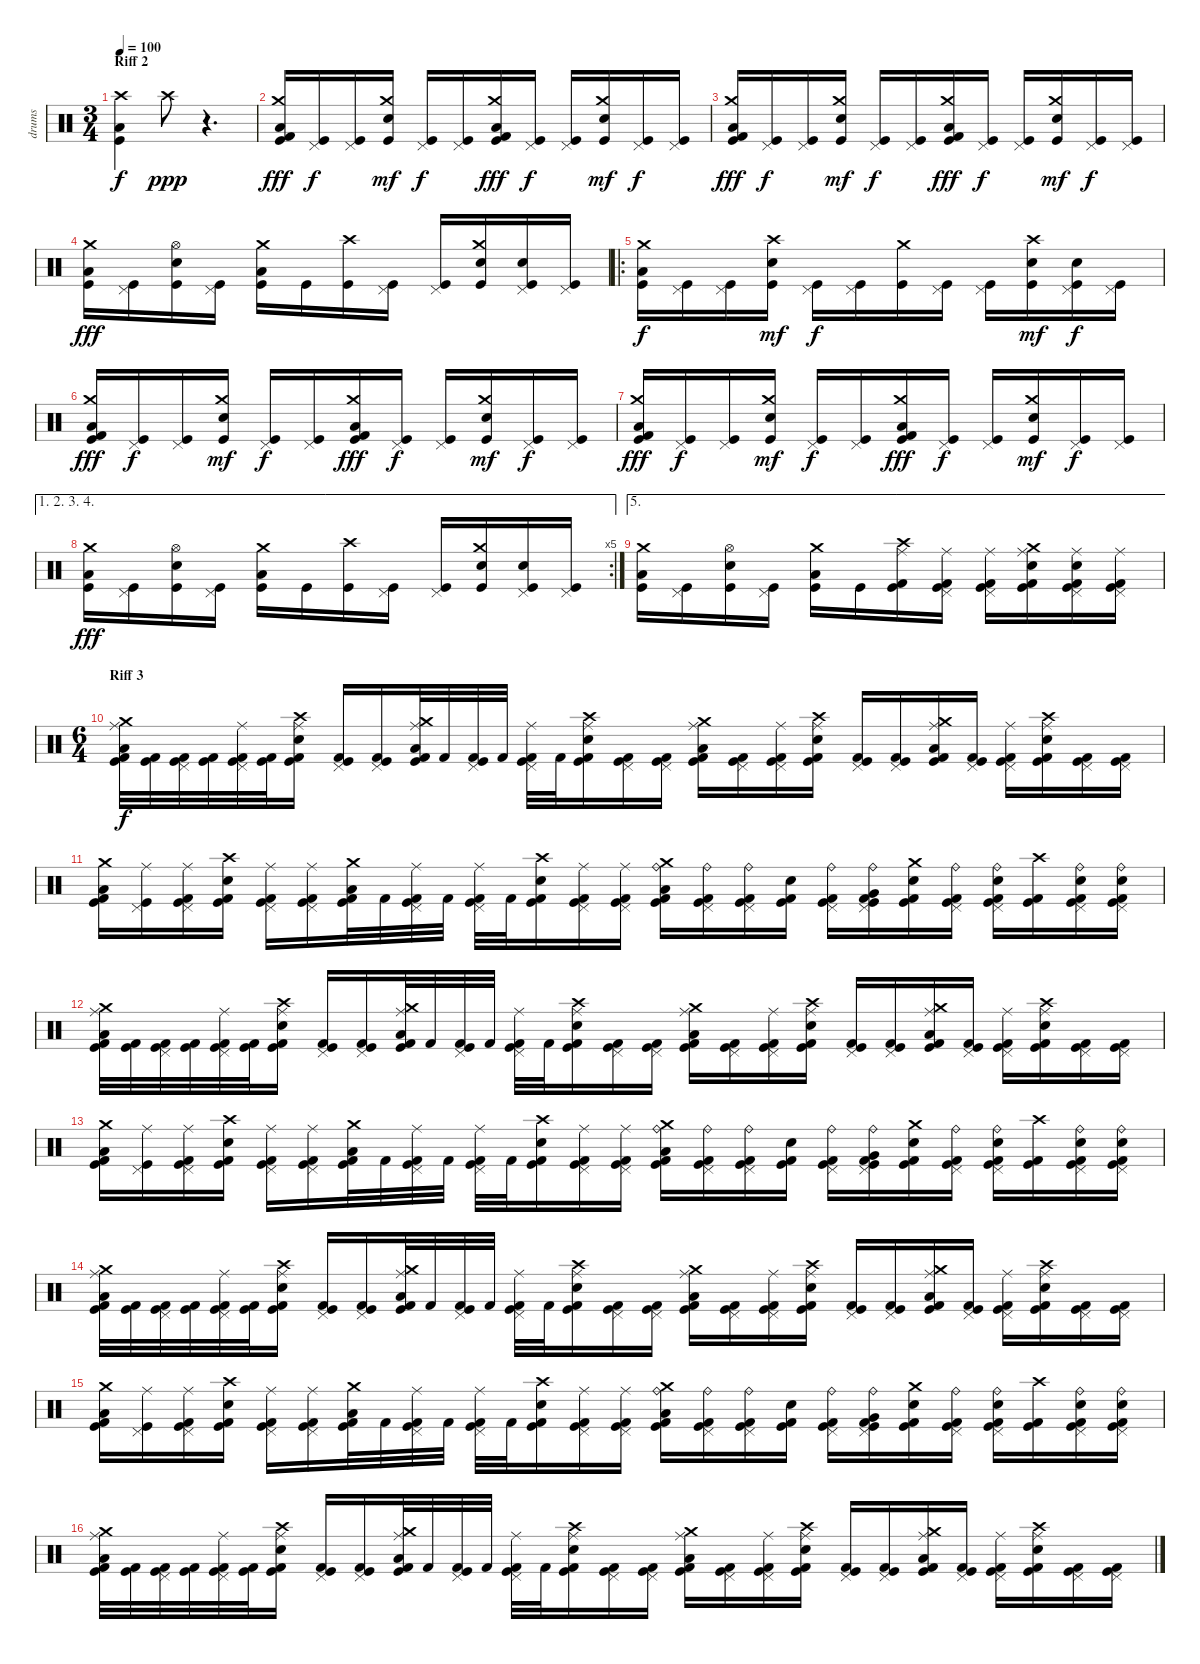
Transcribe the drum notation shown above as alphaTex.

\track ("drums" "drums") {instrument percussion}
\staff {score}
\articulation defaults
\ts (3 4)
\section ("" "Riff 2")
\tempo 100
\clef neutral
\ks c
("Crash high (hit)" "Low Floor Tom (hit)" "Kick (hit)").4{dy f} "Crash high (hit)".8{dy ppp} r.4{d} |
("Crash medium (hit)" "Kick (hit) 2" "Low Floor Tom (hit)" "Kick (hit)").16{dy fff} ("Pedal Hi-Hat (hit)" "Kick (hit)").16{dy f} ("Pedal Hi-Hat (hit)" "Kick (hit)").16 ("Crash medium (hit)" "Snare (hit) 2" "Kick (hit)").16{dy mf} ("Pedal Hi-Hat (hit)" "Kick (hit)").16{dy f} ("Pedal Hi-Hat (hit)" "Kick (hit)").16 ("Crash medium (hit)" "Kick (hit) 2" "Low Floor Tom (hit)" "Kick (hit)").16{dy fff} ("Pedal Hi-Hat (hit)" "Kick (hit)").16{dy f} ("Pedal Hi-Hat (hit)" "Kick (hit)").16 ("Crash medium (hit)" "Snare (hit) 2" "Kick (hit)").16{dy mf} ("Pedal Hi-Hat (hit)" "Kick (hit)").16{dy f} ("Pedal Hi-Hat (hit)" "Kick (hit)").16 |
("Crash medium (hit)" "Low Floor Tom (hit)" "Kick (hit) 2" "Kick (hit)").16{dy fff} ("Pedal Hi-Hat (hit)" "Kick (hit)").16{dy f} ("Pedal Hi-Hat (hit)" "Kick (hit)").16 ("Crash medium (hit)" "Snare (hit) 2" "Kick (hit)").16{dy mf} ("Pedal Hi-Hat (hit)" "Kick (hit)").16{dy f} ("Pedal Hi-Hat (hit)" "Kick (hit)").16 ("Crash medium (hit)" "Low Floor Tom (hit)" "Kick (hit) 2" "Kick (hit)").16{dy fff} ("Pedal Hi-Hat (hit)" "Kick (hit)").16{dy f} ("Pedal Hi-Hat (hit)" "Kick (hit)").16 ("Crash medium (hit)" "Snare (hit) 2" "Kick (hit)").16{dy mf} ("Pedal Hi-Hat (hit)" "Kick (hit)").16{dy f} ("Pedal Hi-Hat (hit)" "Kick (hit)").16 |
("Crash medium (hit)" "Low Floor Tom (hit)" "Kick (hit)").16{dy fff} ("Pedal Hi-Hat (hit)" "Kick (hit)").16 ("Hi-Hat (open)" "Snare (hit) 2" "Kick (hit)").16 ("Pedal Hi-Hat (hit)" "Kick (hit)").16 ("Crash medium (hit)" "Low Floor Tom (hit)" "Kick (hit)").16 "Kick (hit)".16 ("Crash high (hit)" "Kick (hit)").16 ("Pedal Hi-Hat (hit)" "Kick (hit)").16 ("Pedal Hi-Hat (hit)" "Kick (hit)").16 ("Crash medium (hit)" "Snare (hit) 2" "Kick (hit)").16 ("Pedal Hi-Hat (hit)" "Snare (hit) 2" "Kick (hit)").16 ("Pedal Hi-Hat (hit)" "Kick (hit)").16 |
\ro
("Crash medium (hit)" "Low Floor Tom (hit)" "Kick (hit)").16{dy f} ("Pedal Hi-Hat (hit)" "Kick (hit)").16 ("Pedal Hi-Hat (hit)" "Kick (hit)").16 ("Crash high (hit)" "Snare (hit) 2" "Kick (hit)").16{dy mf} ("Pedal Hi-Hat (hit)" "Kick (hit)").16{dy f} ("Pedal Hi-Hat (hit)" "Kick (hit)").16 ("Crash medium (hit)" "Kick (hit)").16 ("Pedal Hi-Hat (hit)" "Kick (hit)").16 ("Pedal Hi-Hat (hit)" "Kick (hit)").16 ("Crash high (hit)" "Snare (hit) 2" "Kick (hit)").16{dy mf} ("Pedal Hi-Hat (hit)" "Snare (hit) 2" "Kick (hit)").16{dy f} ("Pedal Hi-Hat (hit)" "Kick (hit)").16 |
("Crash medium (hit)" "Kick (hit) 2" "Low Floor Tom (hit)" "Kick (hit)").16{dy fff} ("Pedal Hi-Hat (hit)" "Kick (hit)").16{dy f} ("Pedal Hi-Hat (hit)" "Kick (hit)").16 ("Crash medium (hit)" "Snare (hit) 2" "Kick (hit)").16{dy mf} ("Pedal Hi-Hat (hit)" "Kick (hit)").16{dy f} ("Pedal Hi-Hat (hit)" "Kick (hit)").16 ("Crash medium (hit)" "Kick (hit) 2" "Low Floor Tom (hit)" "Kick (hit)").16{dy fff} ("Pedal Hi-Hat (hit)" "Kick (hit)").16{dy f} ("Pedal Hi-Hat (hit)" "Kick (hit)").16 ("Crash medium (hit)" "Snare (hit) 2" "Kick (hit)").16{dy mf} ("Pedal Hi-Hat (hit)" "Kick (hit)").16{dy f} ("Pedal Hi-Hat (hit)" "Kick (hit)").16 |
("Crash medium (hit)" "Low Floor Tom (hit)" "Kick (hit) 2" "Kick (hit)").16{dy fff} ("Pedal Hi-Hat (hit)" "Kick (hit)").16{dy f} ("Pedal Hi-Hat (hit)" "Kick (hit)").16 ("Crash medium (hit)" "Snare (hit) 2" "Kick (hit)").16{dy mf} ("Pedal Hi-Hat (hit)" "Kick (hit)").16{dy f} ("Pedal Hi-Hat (hit)" "Kick (hit)").16 ("Crash medium (hit)" "Low Floor Tom (hit)" "Kick (hit) 2" "Kick (hit)").16{dy fff} ("Pedal Hi-Hat (hit)" "Kick (hit)").16{dy f} ("Pedal Hi-Hat (hit)" "Kick (hit)").16 ("Crash medium (hit)" "Snare (hit) 2" "Kick (hit)").16{dy mf} ("Pedal Hi-Hat (hit)" "Kick (hit)").16{dy f} ("Pedal Hi-Hat (hit)" "Kick (hit)").16 |
\ae (1 2 3 4)
\rc 5
("Crash medium (hit)" "Low Floor Tom (hit)" "Kick (hit)").16{dy fff} ("Pedal Hi-Hat (hit)" "Kick (hit)").16 ("Hi-Hat (open)" "Snare (hit) 2" "Kick (hit)").16 ("Pedal Hi-Hat (hit)" "Kick (hit)").16 ("Crash medium (hit)" "Low Floor Tom (hit)" "Kick (hit)").16 "Kick (hit)".16 ("Crash high (hit)" "Kick (hit)").16 ("Pedal Hi-Hat (hit)" "Kick (hit)").16 ("Pedal Hi-Hat (hit)" "Kick (hit)").16 ("Crash medium (hit)" "Snare (hit) 2" "Kick (hit)").16 ("Pedal Hi-Hat (hit)" "Snare (hit) 2" "Kick (hit)").16 ("Pedal Hi-Hat (hit)" "Kick (hit)").16 |
\ae 5
("Crash medium (hit)" "Low Floor Tom (hit)" "Kick (hit)").16 ("Pedal Hi-Hat (hit)" "Kick (hit)").16 ("Hi-Hat (open)" "Snare (hit) 2" "Kick (hit)").16 ("Pedal Hi-Hat (hit)" "Kick (hit)").16 ("Crash medium (hit)" "Low Floor Tom (hit)" "Kick (hit)").16 "Kick (hit)".16 ("Ride (middle)" "Crash high (hit)" "Kick (hit) 2" "Kick (hit)").16 ("Ride (middle)" "Pedal Hi-Hat (hit)" "Kick (hit) 2" "Kick (hit)").16 ("Ride (middle)" "Pedal Hi-Hat (hit)" "Kick (hit) 2" "Kick (hit)").16 ("Ride (middle)" "Crash medium (hit)" "Snare (hit) 2" "Kick (hit) 2" "Kick (hit)").16 ("Ride (middle)" "Pedal Hi-Hat (hit)" "Snare (hit) 2" "Kick (hit) 2" "Kick (hit)").16 ("Ride (middle)" "Pedal Hi-Hat (hit)" "Kick (hit) 2" "Kick (hit)").16 |
\ts (6 4)
\section ("" "Riff 3")
("Ride (middle)" "Crash medium (hit)" "Low Floor Tom (hit)" "Kick (hit) 2" "Kick (hit)").32{dy f} ("Kick (hit) 2" "Kick (hit)").32 ("Pedal Hi-Hat (hit)" "Kick (hit) 2" "Kick (hit)").32 ("Kick (hit) 2" "Kick (hit)").32 ("Ride (middle)" "Pedal Hi-Hat (hit)" "Kick (hit) 2" "Kick (hit)").32 ("Kick (hit) 2" "Kick (hit)").32 ("Ride (middle)" "Crash high (hit)" "Snare (hit) 2" "Kick (hit) 2" "Kick (hit)").16 ("Pedal Hi-Hat (hit)" "Kick (hit) 2" "Kick (hit)").16 ("Pedal Hi-Hat (hit)" "Kick (hit) 2" "Kick (hit)").16 ("Ride (middle)" "Crash medium (hit)" "Low Floor Tom (hit)" "Kick (hit) 2" "Kick (hit)").32 "Kick (hit) 2".32 ("Pedal Hi-Hat (hit)" "Kick (hit) 2" "Kick (hit)").32 "Kick (hit) 2".32 ("Ride (middle)" "Pedal Hi-Hat (hit)" "Kick (hit) 2" "Kick (hit)").32 "Kick (hit) 2".32 ("Ride (middle)" "Crash high (hit)" "Snare (hit) 2" "Kick (hit) 2" "Kick (hit)").16 ("Pedal Hi-Hat (hit)" "Kick (hit) 2" "Kick (hit)").16 ("Pedal Hi-Hat (hit)" "Kick (hit) 2" "Kick (hit)").16 ("Ride (middle)" "Crash medium (hit)" "Low Floor Tom (hit)" "Kick (hit) 2" "Kick (hit)").16 ("Pedal Hi-Hat (hit)" "Kick (hit) 2" "Kick (hit)").16 ("Ride (middle)" "Pedal Hi-Hat (hit)" "Kick (hit) 2" "Kick (hit)").16 ("Ride (middle)" "Crash high (hit)" "Snare (hit) 2" "Kick (hit) 2" "Kick (hit)").16 ("Pedal Hi-Hat (hit)" "Kick (hit) 2" "Kick (hit)").16 ("Pedal Hi-Hat (hit)" "Kick (hit) 2" "Kick (hit)").16 ("Ride (middle)" "Crash medium (hit)" "Low Floor Tom (hit)" "Kick (hit) 2" "Kick (hit)").16 ("Pedal Hi-Hat (hit)" "Kick (hit) 2" "Kick (hit)").16 ("Ride (middle)" "Pedal Hi-Hat (hit)" "Kick (hit) 2" "Kick (hit)").16 ("Ride (middle)" "Crash high (hit)" "Snare (hit) 2" "Kick (hit) 2" "Kick (hit)").16 ("Pedal Hi-Hat (hit)" "Kick (hit) 2" "Kick (hit)").16 ("Pedal Hi-Hat (hit)" "Kick (hit) 2" "Kick (hit)").16 |
("Crash medium (hit)" "Low Floor Tom (hit)" "Kick (hit) 2" "Kick (hit)").16 ("Ride (middle)" "Pedal Hi-Hat (hit)" "Kick (hit)").16 ("Ride (middle)" "Pedal Hi-Hat (hit)" "Kick (hit) 2" "Kick (hit)").16 ("Crash high (hit)" "Snare (hit) 2" "Kick (hit) 2" "Kick (hit)").16 ("Ride (middle)" "Pedal Hi-Hat (hit)" "Kick (hit) 2" "Kick (hit)").16 ("Ride (middle)" "Pedal Hi-Hat (hit)" "Kick (hit) 2" "Kick (hit)").16 ("Crash medium (hit)" "Low Floor Tom (hit)" "Kick (hit) 2" "Kick (hit)").32 "Kick (hit) 2".32 ("Ride (middle)" "Pedal Hi-Hat (hit)" "Kick (hit) 2" "Kick (hit)").32 "Kick (hit) 2".32 ("Ride (middle)" "Pedal Hi-Hat (hit)" "Kick (hit) 2" "Kick (hit)").32 "Kick (hit) 2".32 ("Crash high (hit)" "Snare (hit) 2" "Kick (hit) 2" "Kick (hit)").16 ("Ride (middle)" "Pedal Hi-Hat (hit)" "Kick (hit) 2" "Kick (hit)").16 ("Ride (middle)" "Pedal Hi-Hat (hit)" "Kick (hit) 2" "Kick (hit)").16 ("Ride (bell)" "Crash medium (hit)" "Low Floor Tom (hit)" "Kick (hit) 2" "Kick (hit)").16 ("Ride (bell)" "Pedal Hi-Hat (hit)" "Kick (hit) 2" "Kick (hit)").16 ("Ride (bell)" "Pedal Hi-Hat (hit)" "Kick (hit) 2" "Kick (hit)").16 ("Snare (hit) 2" "Kick (hit) 2" "Kick (hit)").16 ("Ride (bell)" "Pedal Hi-Hat (hit)" "Kick (hit) 2" "Kick (hit)").16 ("Ride (bell)" "Pedal Hi-Hat (hit)" "Very Low Tom (hit)" "Kick (hit) 2" "Kick (hit)").16 ("Crash medium (hit)" "Snare (hit) 2" "Kick (hit) 2" "Kick (hit)").16 ("Ride (bell)" "Pedal Hi-Hat (hit)" "Kick (hit) 2" "Kick (hit)").16 ("Ride (bell)" "Pedal Hi-Hat (hit)" "Snare (hit) 2" "Kick (hit) 2" "Kick (hit)").16 ("Crash high (hit)" "Kick (hit) 2" "Kick (hit)").16 ("Ride (bell)" "Pedal Hi-Hat (hit)" "Snare (hit) 2" "Kick (hit) 2" "Kick (hit)").16 ("Ride (bell)" "Pedal Hi-Hat (hit)" "Snare (hit) 2" "Kick (hit) 2" "Kick (hit)").16 |
("Ride (middle)" "Crash medium (hit)" "Low Floor Tom (hit)" "Kick (hit) 2" "Kick (hit)").32 ("Kick (hit) 2" "Kick (hit)").32 ("Pedal Hi-Hat (hit)" "Kick (hit) 2" "Kick (hit)").32 ("Kick (hit) 2" "Kick (hit)").32 ("Ride (middle)" "Pedal Hi-Hat (hit)" "Kick (hit) 2" "Kick (hit)").32 ("Kick (hit) 2" "Kick (hit)").32 ("Ride (middle)" "Crash high (hit)" "Snare (hit) 2" "Kick (hit) 2" "Kick (hit)").16 ("Pedal Hi-Hat (hit)" "Kick (hit) 2" "Kick (hit)").16 ("Pedal Hi-Hat (hit)" "Kick (hit) 2" "Kick (hit)").16 ("Ride (middle)" "Crash medium (hit)" "Low Floor Tom (hit)" "Kick (hit) 2" "Kick (hit)").32 "Kick (hit) 2".32 ("Pedal Hi-Hat (hit)" "Kick (hit) 2" "Kick (hit)").32 "Kick (hit) 2".32 ("Ride (middle)" "Pedal Hi-Hat (hit)" "Kick (hit) 2" "Kick (hit)").32 "Kick (hit) 2".32 ("Ride (middle)" "Crash high (hit)" "Snare (hit) 2" "Kick (hit) 2" "Kick (hit)").16 ("Pedal Hi-Hat (hit)" "Kick (hit) 2" "Kick (hit)").16 ("Pedal Hi-Hat (hit)" "Kick (hit) 2" "Kick (hit)").16 ("Ride (middle)" "Crash medium (hit)" "Low Floor Tom (hit)" "Kick (hit) 2" "Kick (hit)").16 ("Pedal Hi-Hat (hit)" "Kick (hit) 2" "Kick (hit)").16 ("Ride (middle)" "Pedal Hi-Hat (hit)" "Kick (hit) 2" "Kick (hit)").16 ("Ride (middle)" "Crash high (hit)" "Snare (hit) 2" "Kick (hit) 2" "Kick (hit)").16 ("Pedal Hi-Hat (hit)" "Kick (hit) 2" "Kick (hit)").16 ("Pedal Hi-Hat (hit)" "Kick (hit) 2" "Kick (hit)").16 ("Ride (middle)" "Crash medium (hit)" "Low Floor Tom (hit)" "Kick (hit) 2" "Kick (hit)").16 ("Pedal Hi-Hat (hit)" "Kick (hit) 2" "Kick (hit)").16 ("Ride (middle)" "Pedal Hi-Hat (hit)" "Kick (hit) 2" "Kick (hit)").16 ("Ride (middle)" "Crash high (hit)" "Snare (hit) 2" "Kick (hit) 2" "Kick (hit)").16 ("Pedal Hi-Hat (hit)" "Kick (hit) 2" "Kick (hit)").16 ("Pedal Hi-Hat (hit)" "Kick (hit) 2" "Kick (hit)").16 |
("Crash medium (hit)" "Low Floor Tom (hit)" "Kick (hit) 2" "Kick (hit)").16 ("Ride (middle)" "Pedal Hi-Hat (hit)" "Kick (hit)").16 ("Ride (middle)" "Pedal Hi-Hat (hit)" "Kick (hit) 2" "Kick (hit)").16 ("Crash high (hit)" "Snare (hit) 2" "Kick (hit) 2" "Kick (hit)").16 ("Ride (middle)" "Pedal Hi-Hat (hit)" "Kick (hit) 2" "Kick (hit)").16 ("Ride (middle)" "Pedal Hi-Hat (hit)" "Kick (hit) 2" "Kick (hit)").16 ("Crash medium (hit)" "Low Floor Tom (hit)" "Kick (hit) 2" "Kick (hit)").32 "Kick (hit) 2".32 ("Ride (middle)" "Pedal Hi-Hat (hit)" "Kick (hit) 2" "Kick (hit)").32 "Kick (hit) 2".32 ("Ride (middle)" "Pedal Hi-Hat (hit)" "Kick (hit) 2" "Kick (hit)").32 "Kick (hit) 2".32 ("Crash high (hit)" "Snare (hit) 2" "Kick (hit) 2" "Kick (hit)").16 ("Ride (middle)" "Pedal Hi-Hat (hit)" "Kick (hit) 2" "Kick (hit)").16 ("Ride (middle)" "Pedal Hi-Hat (hit)" "Kick (hit) 2" "Kick (hit)").16 ("Ride (bell)" "Crash medium (hit)" "Low Floor Tom (hit)" "Kick (hit) 2" "Kick (hit)").16 ("Ride (bell)" "Pedal Hi-Hat (hit)" "Kick (hit) 2" "Kick (hit)").16 ("Ride (bell)" "Pedal Hi-Hat (hit)" "Kick (hit) 2" "Kick (hit)").16 ("Snare (hit) 2" "Kick (hit) 2" "Kick (hit)").16 ("Ride (bell)" "Pedal Hi-Hat (hit)" "Kick (hit) 2" "Kick (hit)").16 ("Ride (bell)" "Pedal Hi-Hat (hit)" "Very Low Tom (hit)" "Kick (hit) 2" "Kick (hit)").16 ("Crash medium (hit)" "Snare (hit) 2" "Kick (hit) 2" "Kick (hit)").16 ("Ride (bell)" "Pedal Hi-Hat (hit)" "Kick (hit) 2" "Kick (hit)").16 ("Ride (bell)" "Pedal Hi-Hat (hit)" "Snare (hit) 2" "Kick (hit) 2" "Kick (hit)").16 ("Crash high (hit)" "Kick (hit) 2" "Kick (hit)").16 ("Ride (bell)" "Pedal Hi-Hat (hit)" "Snare (hit) 2" "Kick (hit) 2" "Kick (hit)").16 ("Ride (bell)" "Pedal Hi-Hat (hit)" "Snare (hit) 2" "Kick (hit) 2" "Kick (hit)").16 |
("Ride (middle)" "Crash medium (hit)" "Low Floor Tom (hit)" "Kick (hit) 2" "Kick (hit)").32 ("Kick (hit) 2" "Kick (hit)").32 ("Pedal Hi-Hat (hit)" "Kick (hit) 2" "Kick (hit)").32 ("Kick (hit) 2" "Kick (hit)").32 ("Ride (middle)" "Pedal Hi-Hat (hit)" "Kick (hit) 2" "Kick (hit)").32 ("Kick (hit) 2" "Kick (hit)").32 ("Ride (middle)" "Crash high (hit)" "Snare (hit) 2" "Kick (hit) 2" "Kick (hit)").16 ("Pedal Hi-Hat (hit)" "Kick (hit) 2" "Kick (hit)").16 ("Pedal Hi-Hat (hit)" "Kick (hit) 2" "Kick (hit)").16 ("Ride (middle)" "Crash medium (hit)" "Low Floor Tom (hit)" "Kick (hit) 2" "Kick (hit)").32 "Kick (hit) 2".32 ("Pedal Hi-Hat (hit)" "Kick (hit) 2" "Kick (hit)").32 "Kick (hit) 2".32 ("Ride (middle)" "Pedal Hi-Hat (hit)" "Kick (hit) 2" "Kick (hit)").32 "Kick (hit) 2".32 ("Ride (middle)" "Crash high (hit)" "Snare (hit) 2" "Kick (hit) 2" "Kick (hit)").16 ("Pedal Hi-Hat (hit)" "Kick (hit) 2" "Kick (hit)").16 ("Pedal Hi-Hat (hit)" "Kick (hit) 2" "Kick (hit)").16 ("Ride (middle)" "Crash medium (hit)" "Low Floor Tom (hit)" "Kick (hit) 2" "Kick (hit)").16 ("Pedal Hi-Hat (hit)" "Kick (hit) 2" "Kick (hit)").16 ("Ride (middle)" "Pedal Hi-Hat (hit)" "Kick (hit) 2" "Kick (hit)").16 ("Ride (middle)" "Crash high (hit)" "Snare (hit) 2" "Kick (hit) 2" "Kick (hit)").16 ("Pedal Hi-Hat (hit)" "Kick (hit) 2" "Kick (hit)").16 ("Pedal Hi-Hat (hit)" "Kick (hit) 2" "Kick (hit)").16 ("Ride (middle)" "Crash medium (hit)" "Low Floor Tom (hit)" "Kick (hit) 2" "Kick (hit)").16 ("Pedal Hi-Hat (hit)" "Kick (hit) 2" "Kick (hit)").16 ("Ride (middle)" "Pedal Hi-Hat (hit)" "Kick (hit) 2" "Kick (hit)").16 ("Ride (middle)" "Crash high (hit)" "Snare (hit) 2" "Kick (hit) 2" "Kick (hit)").16 ("Pedal Hi-Hat (hit)" "Kick (hit) 2" "Kick (hit)").16 ("Pedal Hi-Hat (hit)" "Kick (hit) 2" "Kick (hit)").16 |
("Crash medium (hit)" "Low Floor Tom (hit)" "Kick (hit) 2" "Kick (hit)").16 ("Ride (middle)" "Pedal Hi-Hat (hit)" "Kick (hit)").16 ("Ride (middle)" "Pedal Hi-Hat (hit)" "Kick (hit) 2" "Kick (hit)").16 ("Crash high (hit)" "Snare (hit) 2" "Kick (hit) 2" "Kick (hit)").16 ("Ride (middle)" "Pedal Hi-Hat (hit)" "Kick (hit) 2" "Kick (hit)").16 ("Ride (middle)" "Pedal Hi-Hat (hit)" "Kick (hit) 2" "Kick (hit)").16 ("Crash medium (hit)" "Low Floor Tom (hit)" "Kick (hit) 2" "Kick (hit)").32 "Kick (hit) 2".32 ("Ride (middle)" "Pedal Hi-Hat (hit)" "Kick (hit) 2" "Kick (hit)").32 "Kick (hit) 2".32 ("Ride (middle)" "Pedal Hi-Hat (hit)" "Kick (hit) 2" "Kick (hit)").32 "Kick (hit) 2".32 ("Crash high (hit)" "Snare (hit) 2" "Kick (hit) 2" "Kick (hit)").16 ("Ride (middle)" "Pedal Hi-Hat (hit)" "Kick (hit) 2" "Kick (hit)").16 ("Ride (middle)" "Pedal Hi-Hat (hit)" "Kick (hit) 2" "Kick (hit)").16 ("Ride (bell)" "Crash medium (hit)" "Low Floor Tom (hit)" "Kick (hit) 2" "Kick (hit)").16 ("Ride (bell)" "Pedal Hi-Hat (hit)" "Kick (hit) 2" "Kick (hit)").16 ("Ride (bell)" "Pedal Hi-Hat (hit)" "Kick (hit) 2" "Kick (hit)").16 ("Snare (hit) 2" "Kick (hit) 2" "Kick (hit)").16 ("Ride (bell)" "Pedal Hi-Hat (hit)" "Kick (hit) 2" "Kick (hit)").16 ("Ride (bell)" "Pedal Hi-Hat (hit)" "Very Low Tom (hit)" "Kick (hit) 2" "Kick (hit)").16 ("Crash medium (hit)" "Snare (hit) 2" "Kick (hit) 2" "Kick (hit)").16 ("Ride (bell)" "Pedal Hi-Hat (hit)" "Kick (hit) 2" "Kick (hit)").16 ("Ride (bell)" "Pedal Hi-Hat (hit)" "Snare (hit) 2" "Kick (hit) 2" "Kick (hit)").16 ("Crash high (hit)" "Kick (hit) 2" "Kick (hit)").16 ("Ride (bell)" "Pedal Hi-Hat (hit)" "Snare (hit) 2" "Kick (hit) 2" "Kick (hit)").16 ("Ride (bell)" "Pedal Hi-Hat (hit)" "Snare (hit) 2" "Kick (hit) 2" "Kick (hit)").16 |
("Ride (middle)" "Crash medium (hit)" "Low Floor Tom (hit)" "Kick (hit) 2" "Kick (hit)").32 ("Kick (hit) 2" "Kick (hit)").32 ("Pedal Hi-Hat (hit)" "Kick (hit) 2" "Kick (hit)").32 ("Kick (hit) 2" "Kick (hit)").32 ("Ride (middle)" "Pedal Hi-Hat (hit)" "Kick (hit) 2" "Kick (hit)").32 ("Kick (hit) 2" "Kick (hit)").32 ("Ride (middle)" "Crash high (hit)" "Snare (hit) 2" "Kick (hit) 2" "Kick (hit)").16 ("Pedal Hi-Hat (hit)" "Kick (hit) 2" "Kick (hit)").16 ("Pedal Hi-Hat (hit)" "Kick (hit) 2" "Kick (hit)").16 ("Ride (middle)" "Crash medium (hit)" "Low Floor Tom (hit)" "Kick (hit) 2" "Kick (hit)").32 "Kick (hit) 2".32 ("Pedal Hi-Hat (hit)" "Kick (hit) 2" "Kick (hit)").32 "Kick (hit) 2".32 ("Ride (middle)" "Pedal Hi-Hat (hit)" "Kick (hit) 2" "Kick (hit)").32 "Kick (hit) 2".32 ("Ride (middle)" "Crash high (hit)" "Snare (hit) 2" "Kick (hit) 2" "Kick (hit)").16 ("Pedal Hi-Hat (hit)" "Kick (hit) 2" "Kick (hit)").16 ("Pedal Hi-Hat (hit)" "Kick (hit) 2" "Kick (hit)").16 ("Ride (middle)" "Crash medium (hit)" "Low Floor Tom (hit)" "Kick (hit) 2" "Kick (hit)").16 ("Pedal Hi-Hat (hit)" "Kick (hit) 2" "Kick (hit)").16 ("Ride (middle)" "Pedal Hi-Hat (hit)" "Kick (hit) 2" "Kick (hit)").16 ("Ride (middle)" "Crash high (hit)" "Snare (hit) 2" "Kick (hit) 2" "Kick (hit)").16 ("Pedal Hi-Hat (hit)" "Kick (hit) 2" "Kick (hit)").16 ("Pedal Hi-Hat (hit)" "Kick (hit) 2" "Kick (hit)").16 ("Ride (middle)" "Crash medium (hit)" "Low Floor Tom (hit)" "Kick (hit) 2" "Kick (hit)").16 ("Pedal Hi-Hat (hit)" "Kick (hit) 2" "Kick (hit)").16 ("Ride (middle)" "Pedal Hi-Hat (hit)" "Kick (hit) 2" "Kick (hit)").16 ("Ride (middle)" "Crash high (hit)" "Snare (hit) 2" "Kick (hit) 2" "Kick (hit)").16 ("Pedal Hi-Hat (hit)" "Kick (hit) 2" "Kick (hit)").16 ("Pedal Hi-Hat (hit)" "Kick (hit) 2" "Kick (hit)").16
